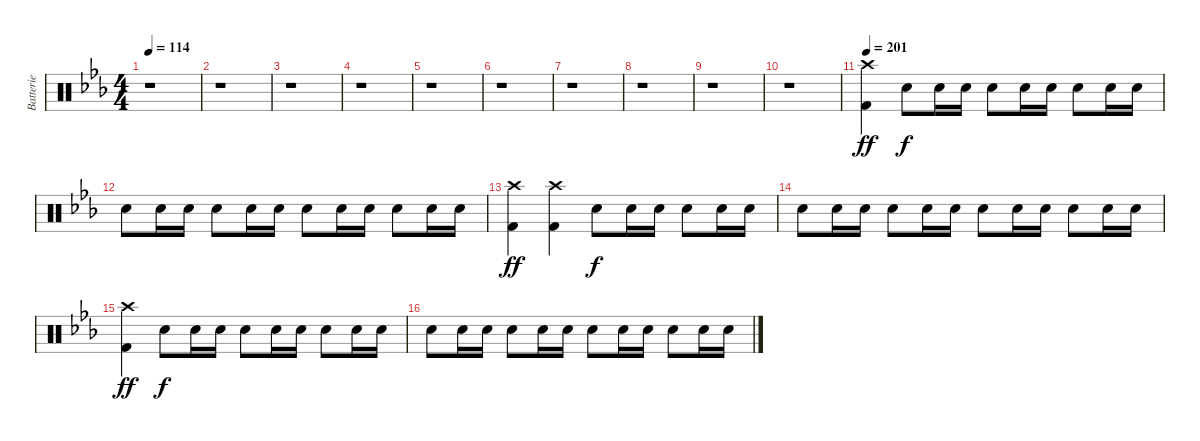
\track ("Batterie" "Batterie") {instrument percussion}
\staff {score}
\articulation defaults
\ts (4 4)
\tempo 114
\clef neutral
\ks eb
r.1{dy f} |
r.1 |
r.1 |
r.1 |
r.1 |
r.1 |
r.1 |
r.1 |
r.1 |
r.1 |
\tempo 201
("Crash high (hit)" "Kick (hit) 2").4{dy ff} "Snare (hit) 2".8{dy f} "Snare (hit) 2".16 "Snare (hit) 2".16 "Snare (hit) 2".8 "Snare (hit) 2".16 "Snare (hit) 2".16 "Snare (hit) 2".8 "Snare (hit) 2".16 "Snare (hit) 2".16 |
"Snare (hit) 2".8 "Snare (hit) 2".16 "Snare (hit) 2".16 "Snare (hit) 2".8 "Snare (hit) 2".16 "Snare (hit) 2".16 "Snare (hit) 2".8 "Snare (hit) 2".16 "Snare (hit) 2".16 "Snare (hit) 2".8 "Snare (hit) 2".16 "Snare (hit) 2".16 |
("Crash high (hit)" "Kick (hit) 2").4{dy ff} ("Crash high (hit)" "Kick (hit) 2").4 "Snare (hit) 2".8{dy f} "Snare (hit) 2".16 "Snare (hit) 2".16 "Snare (hit) 2".8 "Snare (hit) 2".16 "Snare (hit) 2".16 |
"Snare (hit) 2".8 "Snare (hit) 2".16 "Snare (hit) 2".16 "Snare (hit) 2".8 "Snare (hit) 2".16 "Snare (hit) 2".16 "Snare (hit) 2".8 "Snare (hit) 2".16 "Snare (hit) 2".16 "Snare (hit) 2".8 "Snare (hit) 2".16 "Snare (hit) 2".16 |
("Crash high (hit)" "Kick (hit) 2").4{dy ff} "Snare (hit) 2".8{dy f} "Snare (hit) 2".16 "Snare (hit) 2".16 "Snare (hit) 2".8 "Snare (hit) 2".16 "Snare (hit) 2".16 "Snare (hit) 2".8 "Snare (hit) 2".16 "Snare (hit) 2".16 |
"Snare (hit) 2".8 "Snare (hit) 2".16 "Snare (hit) 2".16 "Snare (hit) 2".8 "Snare (hit) 2".16 "Snare (hit) 2".16 "Snare (hit) 2".8 "Snare (hit) 2".16 "Snare (hit) 2".16 "Snare (hit) 2".8 "Snare (hit) 2".16 "Snare (hit) 2".16
